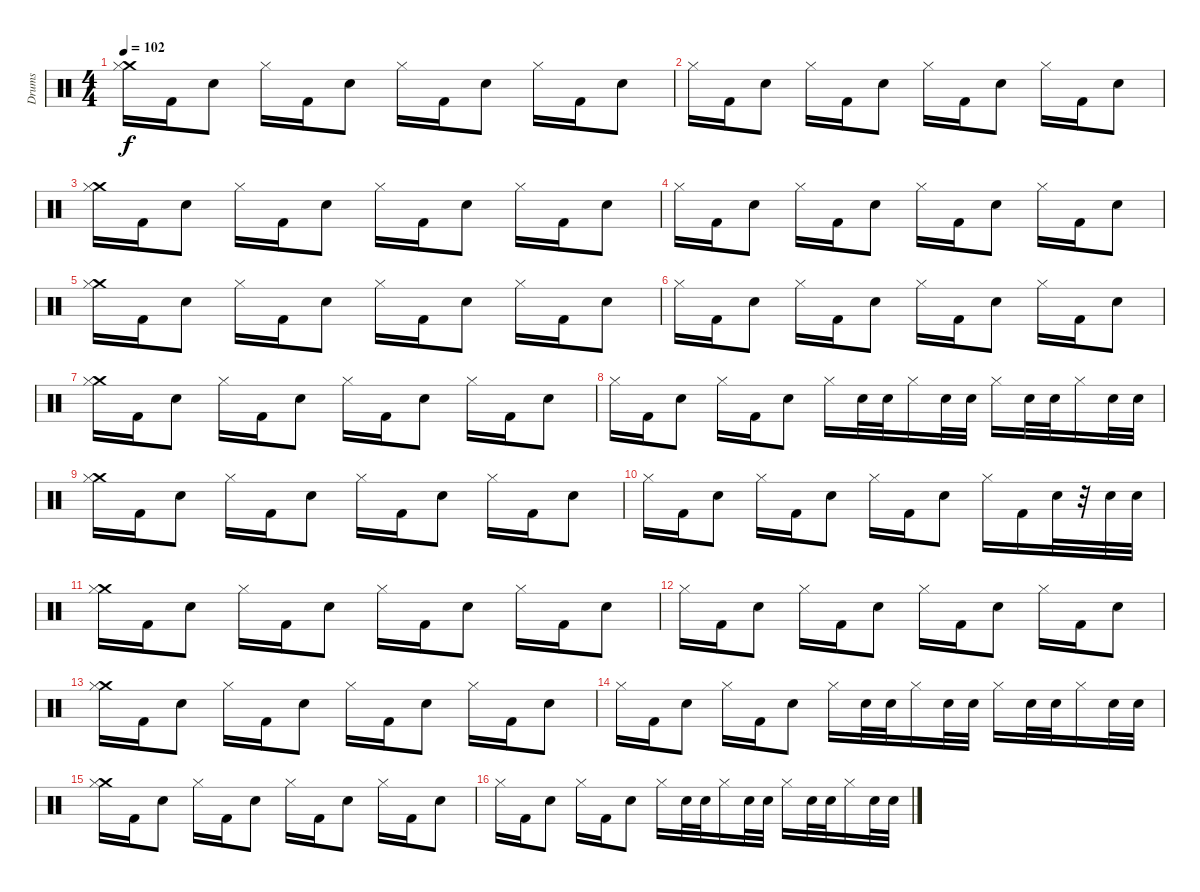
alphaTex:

\track ("Drums" "Drums") {instrument percussion}
\staff {score}
\articulation defaults
\ts (4 4)
\tempo 102
\clef neutral
\ks c
("Crash medium (hit)" "Hi-Hat (closed)").16{dy f} "Kick (hit) 2".16 "Electric Snare (hit)".8 "Hi-Hat (closed)".16 "Kick (hit) 2".16 "Electric Snare (hit)".8 "Hi-Hat (closed)".16 "Kick (hit) 2".16 "Electric Snare (hit)".8 "Hi-Hat (closed)".16 "Kick (hit) 2".16 "Electric Snare (hit)".8 |
"Hi-Hat (closed)".16 "Kick (hit) 2".16 "Electric Snare (hit)".8 "Hi-Hat (closed)".16 "Kick (hit) 2".16 "Electric Snare (hit)".8 "Hi-Hat (closed)".16 "Kick (hit) 2".16 "Electric Snare (hit)".8 "Hi-Hat (closed)".16 "Kick (hit) 2".16 "Electric Snare (hit)".8 |
("Crash medium (hit)" "Hi-Hat (closed)").16 "Kick (hit) 2".16 "Electric Snare (hit)".8 "Hi-Hat (closed)".16 "Kick (hit) 2".16 "Electric Snare (hit)".8 "Hi-Hat (closed)".16 "Kick (hit) 2".16 "Electric Snare (hit)".8 "Hi-Hat (closed)".16 "Kick (hit) 2".16 "Electric Snare (hit)".8 |
"Hi-Hat (closed)".16 "Kick (hit) 2".16 "Electric Snare (hit)".8 "Hi-Hat (closed)".16 "Kick (hit) 2".16 "Electric Snare (hit)".8 "Hi-Hat (closed)".16 "Kick (hit) 2".16 "Electric Snare (hit)".8 "Hi-Hat (closed)".16 "Kick (hit) 2".16 "Electric Snare (hit)".8 |
("Crash medium (hit)" "Hi-Hat (closed)").16 "Kick (hit) 2".16 "Electric Snare (hit)".8 "Hi-Hat (closed)".16 "Kick (hit) 2".16 "Electric Snare (hit)".8 "Hi-Hat (closed)".16 "Kick (hit) 2".16 "Electric Snare (hit)".8 "Hi-Hat (closed)".16 "Kick (hit) 2".16 "Electric Snare (hit)".8 |
"Hi-Hat (closed)".16 "Kick (hit) 2".16 "Electric Snare (hit)".8 "Hi-Hat (closed)".16 "Kick (hit) 2".16 "Electric Snare (hit)".8 "Hi-Hat (closed)".16 "Kick (hit) 2".16 "Electric Snare (hit)".8 "Hi-Hat (closed)".16 "Kick (hit) 2".16 "Electric Snare (hit)".8 |
("Crash medium (hit)" "Hi-Hat (closed)").16 "Kick (hit) 2".16 "Electric Snare (hit)".8 "Hi-Hat (closed)".16 "Kick (hit) 2".16 "Electric Snare (hit)".8 "Hi-Hat (closed)".16 "Kick (hit) 2".16 "Electric Snare (hit)".8 "Hi-Hat (closed)".16 "Kick (hit) 2".16 "Electric Snare (hit)".8 |
"Hi-Hat (closed)".16 "Kick (hit) 2".16 "Electric Snare (hit)".8 "Hi-Hat (closed)".16 "Kick (hit) 2".16 "Electric Snare (hit)".8 "Hi-Hat (closed)".16 "Electric Snare (hit)".32 "Electric Snare (hit)".32 "Hi-Hat (closed)".16 "Electric Snare (hit)".32 "Electric Snare (hit)".32 "Hi-Hat (closed)".16 "Electric Snare (hit)".32 "Electric Snare (hit)".32 "Hi-Hat (closed)".16 "Electric Snare (hit)".32 "Electric Snare (hit)".32 |
("Crash medium (hit)" "Hi-Hat (closed)").16 "Kick (hit) 2".16 "Electric Snare (hit)".8 "Hi-Hat (closed)".16 "Kick (hit) 2".16 "Electric Snare (hit)".8 "Hi-Hat (closed)".16 "Kick (hit) 2".16 "Electric Snare (hit)".8 "Hi-Hat (closed)".16 "Kick (hit) 2".16 "Electric Snare (hit)".8 |
"Hi-Hat (closed)".16 "Kick (hit) 2".16 "Electric Snare (hit)".8 "Hi-Hat (closed)".16 "Kick (hit) 2".16 "Electric Snare (hit)".8 "Hi-Hat (closed)".16 "Kick (hit) 2".16 "Electric Snare (hit)".8 "Hi-Hat (closed)".16 "Kick (hit) 2".16 "Electric Snare (hit)".32 r.32 "Electric Snare (hit)".32 "Electric Snare (hit)".32 |
("Crash medium (hit)" "Hi-Hat (closed)").16 "Kick (hit) 2".16 "Electric Snare (hit)".8 "Hi-Hat (closed)".16 "Kick (hit) 2".16 "Electric Snare (hit)".8 "Hi-Hat (closed)".16 "Kick (hit) 2".16 "Electric Snare (hit)".8 "Hi-Hat (closed)".16 "Kick (hit) 2".16 "Electric Snare (hit)".8 |
"Hi-Hat (closed)".16 "Kick (hit) 2".16 "Electric Snare (hit)".8 "Hi-Hat (closed)".16 "Kick (hit) 2".16 "Electric Snare (hit)".8 "Hi-Hat (closed)".16 "Kick (hit) 2".16 "Electric Snare (hit)".8 "Hi-Hat (closed)".16 "Kick (hit) 2".16 "Electric Snare (hit)".8 |
("Crash medium (hit)" "Hi-Hat (closed)").16 "Kick (hit) 2".16 "Electric Snare (hit)".8 "Hi-Hat (closed)".16 "Kick (hit) 2".16 "Electric Snare (hit)".8 "Hi-Hat (closed)".16 "Kick (hit) 2".16 "Electric Snare (hit)".8 "Hi-Hat (closed)".16 "Kick (hit) 2".16 "Electric Snare (hit)".8 |
"Hi-Hat (closed)".16 "Kick (hit) 2".16 "Electric Snare (hit)".8 "Hi-Hat (closed)".16 "Kick (hit) 2".16 "Electric Snare (hit)".8 "Hi-Hat (closed)".16 "Electric Snare (hit)".32 "Electric Snare (hit)".32 "Hi-Hat (closed)".16 "Electric Snare (hit)".32 "Electric Snare (hit)".32 "Hi-Hat (closed)".16 "Electric Snare (hit)".32 "Electric Snare (hit)".32 "Hi-Hat (closed)".16 "Electric Snare (hit)".32 "Electric Snare (hit)".32 |
("Crash medium (hit)" "Hi-Hat (closed)").16 "Kick (hit) 2".16 "Electric Snare (hit)".8 "Hi-Hat (closed)".16 "Kick (hit) 2".16 "Electric Snare (hit)".8 "Hi-Hat (closed)".16 "Kick (hit) 2".16 "Electric Snare (hit)".8 "Hi-Hat (closed)".16 "Kick (hit) 2".16 "Electric Snare (hit)".8 |
"Hi-Hat (closed)".16 "Kick (hit) 2".16 "Electric Snare (hit)".8 "Hi-Hat (closed)".16 "Kick (hit) 2".16 "Electric Snare (hit)".8 "Hi-Hat (closed)".16 "Electric Snare (hit)".32 "Electric Snare (hit)".32 "Hi-Hat (closed)".16 "Electric Snare (hit)".32 "Electric Snare (hit)".32 "Hi-Hat (closed)".16 "Electric Snare (hit)".32 "Electric Snare (hit)".32 "Hi-Hat (closed)".16 "Electric Snare (hit)".32 "Electric Snare (hit)".32
